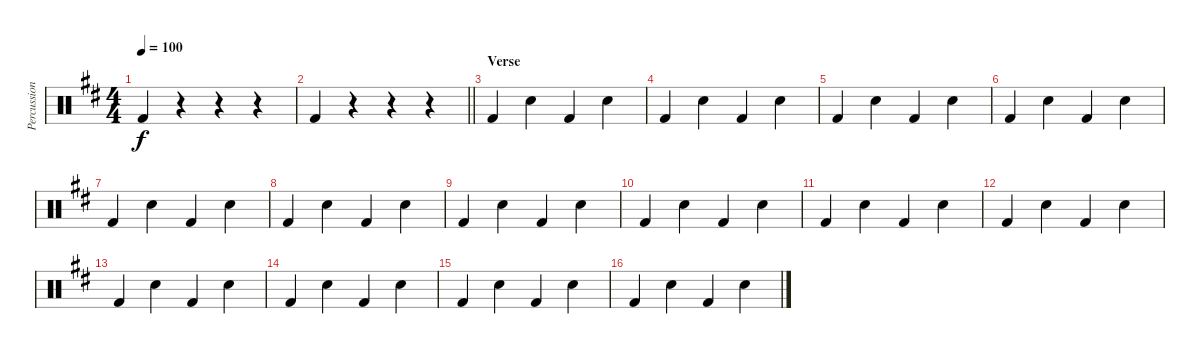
\track ("Percussion" "Percussion") {instrument percussion}
\staff {score}
\articulation defaults
\ts (4 4)
\tempo 100
\clef neutral
\ks d "Kick (hit) 2".4{dy f}
r.4 r.4 r.4 |
\barLineRight lightlight "Kick (hit) 2".4
r.4 r.4 r.4 |
\section ("" "Verse")
"Kick (hit) 2".4 "Electric Snare (hit)".4 "Kick (hit) 2".4 "Electric Snare (hit)".4 |
"Kick (hit) 2".4 "Electric Snare (hit)".4 "Kick (hit) 2".4 "Electric Snare (hit)".4 |
"Kick (hit) 2".4 "Electric Snare (hit)".4 "Kick (hit) 2".4 "Electric Snare (hit)".4 |
"Kick (hit) 2".4 "Electric Snare (hit)".4 "Kick (hit) 2".4 "Electric Snare (hit)".4 |
"Kick (hit) 2".4 "Electric Snare (hit)".4 "Kick (hit) 2".4 "Electric Snare (hit)".4 |
"Kick (hit) 2".4 "Electric Snare (hit)".4 "Kick (hit) 2".4 "Electric Snare (hit)".4 |
"Kick (hit) 2".4 "Electric Snare (hit)".4 "Kick (hit) 2".4 "Electric Snare (hit)".4 |
"Kick (hit) 2".4 "Electric Snare (hit)".4 "Kick (hit) 2".4 "Electric Snare (hit)".4 |
"Kick (hit) 2".4 "Electric Snare (hit)".4 "Kick (hit) 2".4 "Electric Snare (hit)".4 |
"Kick (hit) 2".4 "Electric Snare (hit)".4 "Kick (hit) 2".4 "Electric Snare (hit)".4 |
"Kick (hit) 2".4 "Electric Snare (hit)".4 "Kick (hit) 2".4 "Electric Snare (hit)".4 |
"Kick (hit) 2".4 "Electric Snare (hit)".4 "Kick (hit) 2".4 "Electric Snare (hit)".4 |
"Kick (hit) 2".4 "Electric Snare (hit)".4 "Kick (hit) 2".4 "Electric Snare (hit)".4 |
"Kick (hit) 2".4 "Electric Snare (hit)".4 "Kick (hit) 2".4 "Electric Snare (hit)".4
